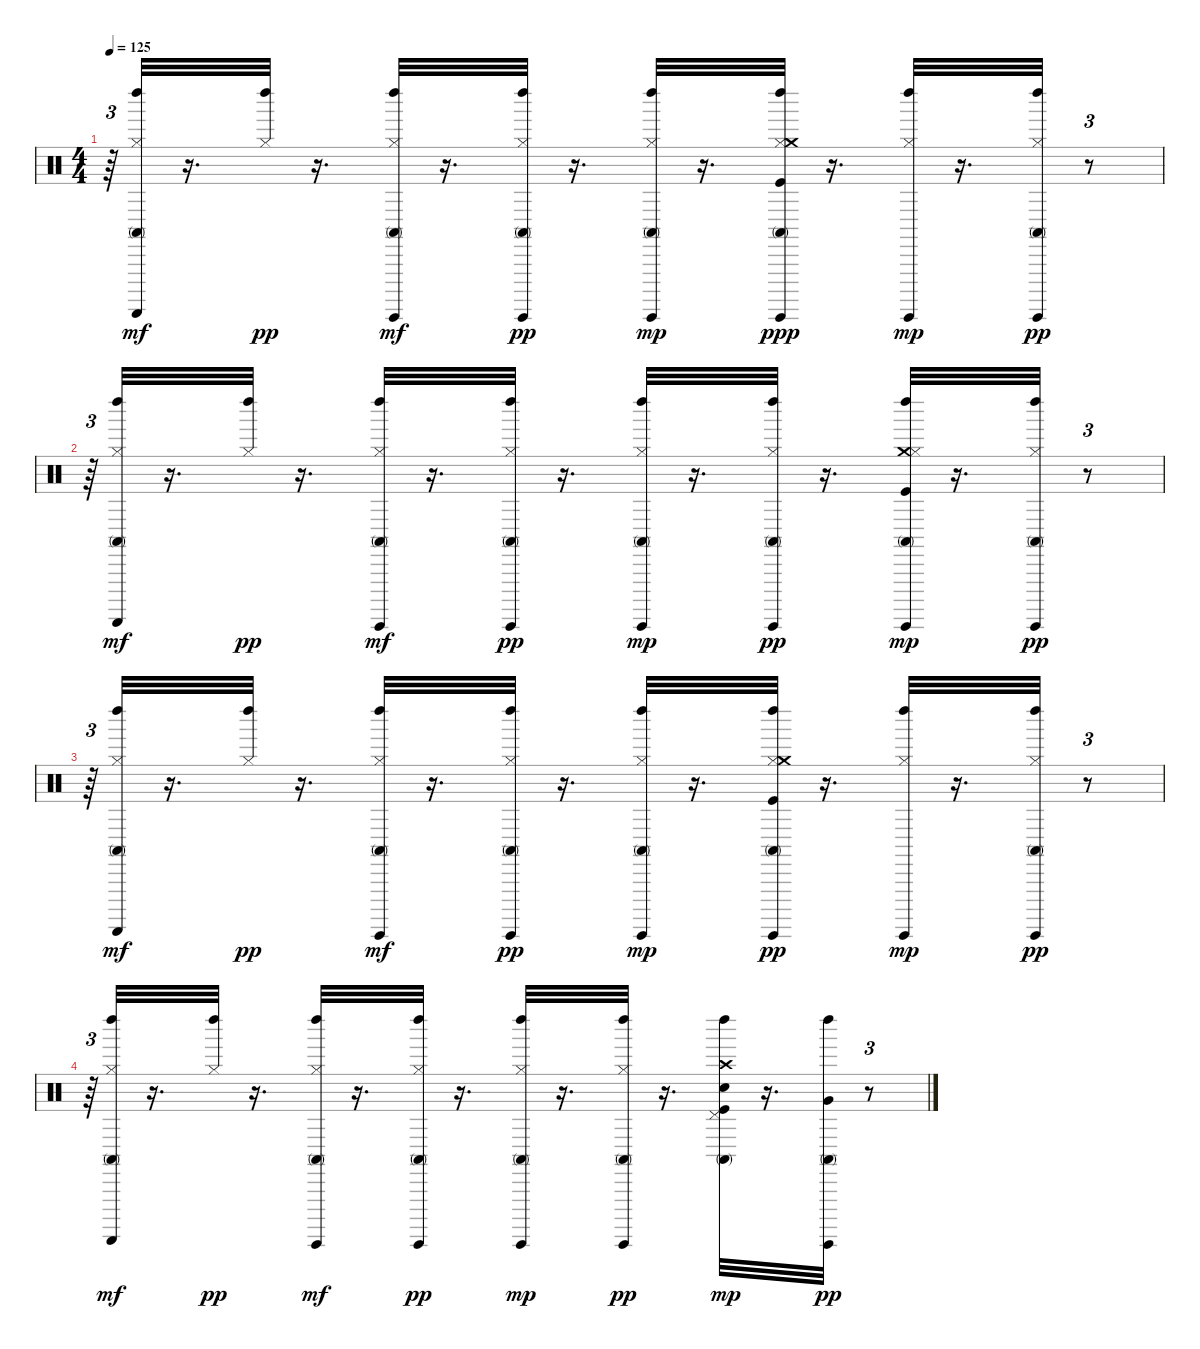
\track "" {instrument percussion}
\staff {score}
\articulation defaults
\ts (4 4)
\tempo 125
\clef neutral
\ks c
r.64{tu (3 2) dy pp} ("Left Maraca (hit)" "Conga high (mute)" "Hi-Hat (closed)" "Guiro (scrap-return)").32{dy mf} r.16{d} ("Hi-Hat (closed)" "Left Maraca (hit)").32{dy pp} r.16{d} ("Conga high (mute)" "Left Maraca (hit)" "Hi-Hat (closed)" "Guiro (hit)").32{dy mf} r.16{d} ("Hi-Hat (closed)" "Left Maraca (hit)" "Conga high (mute)" "Guiro (hit)").32{dy pp} r.16{d} ("Conga high (mute)" "Hi-Hat (closed)" "Left Maraca (hit)" "Guiro (hit)").32{dy mp} r.16{d} ("Left Maraca (hit)" "Conga high (mute)" "Hi-Hat (closed)" "Crash medium (hit)" "Kick (hit)" "Guiro (hit)").32{dy ppp} r.16{d} ("Hi-Hat (closed)" "Left Maraca (hit)" "Guiro (hit)").32{dy mp} r.16{d} ("Conga high (mute)" "Hi-Hat (closed)" "Left Maraca (hit)" "Guiro (hit)").32{dy pp} r.8{tu (3 2)} |
r.64{tu (3 2)} ("Hi-Hat (closed)" "Conga high (mute)" "Left Maraca (hit)" "Guiro (scrap-return)").32{dy mf} r.16{d} ("Hi-Hat (closed)" "Left Maraca (hit)").32{dy pp} r.16{d} ("Conga high (mute)" "Hi-Hat (closed)" "Left Maraca (hit)" "Guiro (hit)").32{dy mf} r.16{d} ("Conga high (mute)" "Left Maraca (hit)" "Hi-Hat (closed)" "Guiro (hit)").32{dy pp} r.16{d} ("Conga high (mute)" "Hi-Hat (closed)" "Left Maraca (hit)" "Guiro (hit)").32{dy mp} r.16{d} ("Conga high (mute)" "Left Maraca (hit)" "Hi-Hat (closed)" "Guiro (hit)").32{dy pp} r.16{d} ("Crash medium (hit)" "Hi-Hat (closed)" "Conga high (mute)" "Kick (hit)" "Left Maraca (hit)" "Guiro (hit)").32{dy mp} r.16{d} ("Conga high (mute)" "Left Maraca (hit)" "Hi-Hat (closed)" "Guiro (hit)").32{dy pp} r.8{tu (3 2)} |
r.64{tu (3 2)} ("Hi-Hat (closed)" "Left Maraca (hit)" "Conga high (mute)" "Guiro (scrap-return)").32{dy mf} r.16{d} ("Left Maraca (hit)" "Hi-Hat (closed)").32{dy pp} r.16{d} ("Left Maraca (hit)" "Conga high (mute)" "Hi-Hat (closed)" "Guiro (hit)").32{dy mf} r.16{d} ("Conga high (mute)" "Hi-Hat (closed)" "Left Maraca (hit)" "Guiro (hit)").32{dy pp} r.16{d} ("Conga high (mute)" "Hi-Hat (closed)" "Left Maraca (hit)" "Guiro (hit)").32{dy mp} r.16{d} ("Hi-Hat (closed)" "Conga high (mute)" "Left Maraca (hit)" "Crash medium (hit)" "Kick (hit)" "Guiro (hit)").32{dy pp} r.16{d} ("Left Maraca (hit)" "Hi-Hat (closed)" "Guiro (hit)").32{dy mp} r.16{d} ("Conga high (mute)" "Left Maraca (hit)" "Hi-Hat (closed)" "Guiro (hit)").32{dy pp} r.8{tu (3 2)} |
r.64{tu (3 2)} ("Hi-Hat (closed)" "Conga high (mute)" "Left Maraca (hit)" "Guiro (scrap-return)").32{dy mf} r.16{d} ("Left Maraca (hit)" "Hi-Hat (closed)").32{dy pp} r.16{d} ("Hi-Hat (closed)" "Left Maraca (hit)" "Conga high (mute)" "Guiro (hit)").32{dy mf} r.16{d} ("Conga high (mute)" "Left Maraca (hit)" "Hi-Hat (closed)" "Guiro (hit)").32{dy pp} r.16{d} ("Hi-Hat (closed)" "Left Maraca (hit)" "Conga high (mute)" "Guiro (hit)").32{dy mp} r.16{d} ("Conga high (mute)" "Hi-Hat (closed)" "Left Maraca (hit)" "Guiro (hit)").32{dy pp} r.16{d} ("Kick (hit)" "Left Maraca (hit)" "Conga high (mute)" "Electric Snare (hit)" "Pedal Hi-Hat (hit)" "Crash high (hit)").32{dy mp} r.16{d} ("Very Low Tom (hit)" "Conga high (mute)" "Left Maraca (hit)" "Guiro (hit)").32{dy pp} r.8{tu (3 2)}
